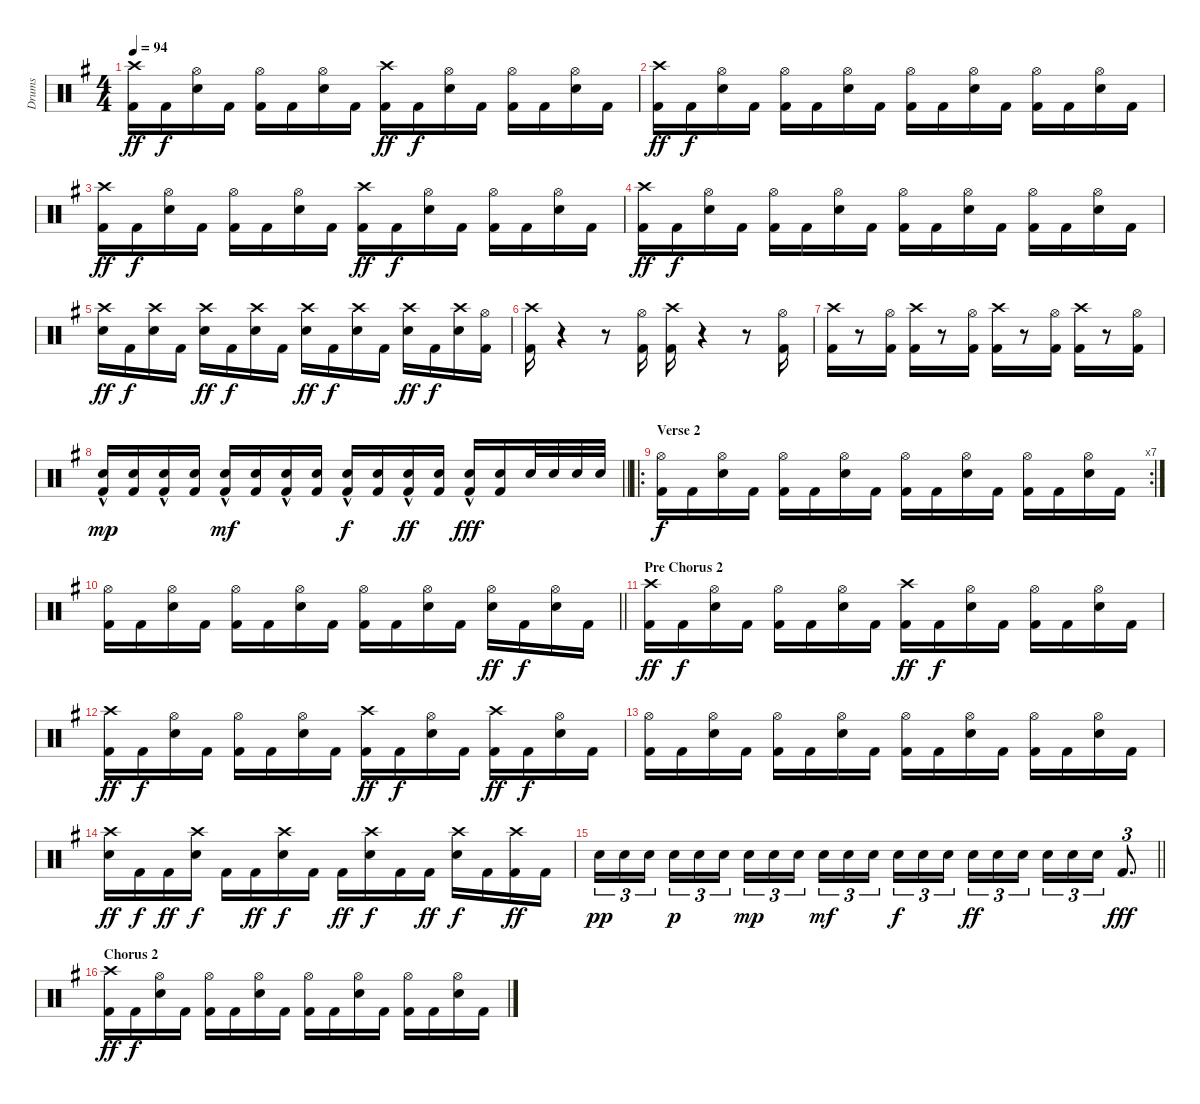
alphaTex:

\track ("Drums" "Drums") {instrument percussion}
\staff {score}
\articulation defaults
\ts (4 4)
\tempo 94
\clef neutral
\ks g
("Crash high (hit)" "Kick (hit) 2").16{dy ff} "Kick (hit) 2".16{dy f} ("Hi-Hat (open)" "Snare (hit) 2").16 "Kick (hit) 2".16 ("Hi-Hat (open)" "Kick (hit) 2").16 "Kick (hit) 2".16 ("Hi-Hat (open)" "Snare (hit) 2").16 "Kick (hit) 2".16 ("Crash high (hit)" "Kick (hit) 2").16{dy ff} "Kick (hit) 2".16{dy f} ("Hi-Hat (open)" "Snare (hit) 2").16 "Kick (hit) 2".16 ("Hi-Hat (open)" "Kick (hit) 2").16 "Kick (hit) 2".16 ("Hi-Hat (open)" "Snare (hit) 2").16 "Kick (hit) 2".16 |
("Crash high (hit)" "Kick (hit) 2").16{dy ff} "Kick (hit) 2".16{dy f} ("Hi-Hat (open)" "Snare (hit) 2").16 "Kick (hit) 2".16 ("Hi-Hat (open)" "Kick (hit) 2").16 "Kick (hit) 2".16 ("Hi-Hat (open)" "Snare (hit) 2").16 "Kick (hit) 2".16 ("Hi-Hat (open)" "Kick (hit) 2").16 "Kick (hit) 2".16 ("Hi-Hat (open)" "Snare (hit) 2").16 "Kick (hit) 2".16 ("Hi-Hat (open)" "Kick (hit) 2").16 "Kick (hit) 2".16 ("Hi-Hat (open)" "Snare (hit) 2").16 "Kick (hit) 2".16 |
("Crash high (hit)" "Kick (hit) 2").16{dy ff} "Kick (hit) 2".16{dy f} ("Hi-Hat (open)" "Snare (hit) 2").16 "Kick (hit) 2".16 ("Hi-Hat (open)" "Kick (hit) 2").16 "Kick (hit) 2".16 ("Hi-Hat (open)" "Snare (hit) 2").16 "Kick (hit) 2".16 ("Crash high (hit)" "Kick (hit) 2").16{dy ff} "Kick (hit) 2".16{dy f} ("Hi-Hat (open)" "Snare (hit) 2").16 "Kick (hit) 2".16 ("Hi-Hat (open)" "Kick (hit) 2").16 "Kick (hit) 2".16 ("Hi-Hat (open)" "Snare (hit) 2").16 "Kick (hit) 2".16 |
("Crash high (hit)" "Kick (hit) 2").16{dy ff} "Kick (hit) 2".16{dy f} ("Hi-Hat (open)" "Snare (hit) 2").16 "Kick (hit) 2".16 ("Hi-Hat (open)" "Kick (hit) 2").16 "Kick (hit) 2".16 ("Hi-Hat (open)" "Snare (hit) 2").16 "Kick (hit) 2".16 ("Hi-Hat (open)" "Kick (hit) 2").16 "Kick (hit) 2".16 ("Hi-Hat (open)" "Snare (hit) 2").16 "Kick (hit) 2".16 ("Hi-Hat (open)" "Kick (hit) 2").16 "Kick (hit) 2".16 ("Hi-Hat (open)" "Snare (hit) 2").16 "Kick (hit) 2".16 |
("Crash high (hit)" "Snare (hit) 2").16{dy ff} "Kick (hit) 2".16{dy f} ("Crash high (hit)" "Snare (hit) 2").16 "Kick (hit) 2".16 ("Crash high (hit)" "Snare (hit) 2").16{dy ff} "Kick (hit) 2".16{dy f} ("Crash high (hit)" "Snare (hit) 2").16 "Kick (hit) 2".16 ("Crash high (hit)" "Snare (hit) 2").16{dy ff} "Kick (hit) 2".16{dy f} ("Crash high (hit)" "Snare (hit) 2").16 "Kick (hit) 2".16 ("Crash high (hit)" "Snare (hit) 2").16{dy ff} "Kick (hit) 2".16{dy f} ("Crash high (hit)" "Snare (hit) 2").16 ("Hi-Hat (open)" "Kick (hit) 2").16 |
("Crash high (hit)" "Kick (hit) 2").16 r.4 r.8 ("Hi-Hat (open)" "Kick (hit) 2").16 ("Crash high (hit)" "Kick (hit) 2").16 r.4 r.8 ("Hi-Hat (open)" "Kick (hit) 2").16 |
("Crash high (hit)" "Kick (hit) 2").16 r.8 ("Hi-Hat (open)" "Kick (hit) 2").16 ("Crash high (hit)" "Kick (hit) 2").16 r.8 ("Hi-Hat (open)" "Kick (hit) 2").16 ("Crash high (hit)" "Kick (hit) 2").16 r.8 ("Hi-Hat (open)" "Kick (hit) 2").16 ("Crash high (hit)" "Kick (hit) 2").16 r.8 ("Hi-Hat (open)" "Kick (hit) 2").16 |
\barLineRight lightlight
("Snare (hit) 2"{hac} "Kick (hit) 2").16{dy mp} ("Snare (hit) 2" "Kick (hit) 2").16 ("Snare (hit) 2"{hac} "Kick (hit) 2").16 ("Snare (hit) 2" "Kick (hit) 2").16 ("Snare (hit) 2"{hac} "Kick (hit) 2").16{dy mf} ("Snare (hit) 2" "Kick (hit) 2").16 ("Snare (hit) 2"{hac} "Kick (hit) 2").16 ("Snare (hit) 2" "Kick (hit) 2").16 ("Snare (hit) 2"{hac} "Kick (hit) 2").16{dy f} ("Snare (hit) 2" "Kick (hit) 2").16 ("Snare (hit) 2"{hac} "Kick (hit) 2").16{dy ff} ("Snare (hit) 2" "Kick (hit) 2").16 ("Snare (hit) 2"{hac} "Kick (hit) 2").16{dy fff} ("Snare (hit) 2" "Kick (hit) 2").16 "Snare (hit) 2".32 "Snare (hit) 2".32 "Snare (hit) 2".32 "Snare (hit) 2".32 |
\ro
\rc 7
\section ("" "Verse 2")
("Hi-Hat (open)" "Kick (hit) 2").16{dy f} "Kick (hit) 2".16 ("Hi-Hat (open)" "Snare (hit) 2").16 "Kick (hit) 2".16 ("Hi-Hat (open)" "Kick (hit) 2").16 "Kick (hit) 2".16 ("Hi-Hat (open)" "Snare (hit) 2").16 "Kick (hit) 2".16 ("Hi-Hat (open)" "Kick (hit) 2").16 "Kick (hit) 2".16 ("Hi-Hat (open)" "Snare (hit) 2").16 "Kick (hit) 2".16 ("Hi-Hat (open)" "Kick (hit) 2").16 "Kick (hit) 2".16 ("Hi-Hat (open)" "Snare (hit) 2").16 "Kick (hit) 2".16 |
\barLineRight lightlight
("Hi-Hat (open)" "Kick (hit) 2").16 "Kick (hit) 2".16 ("Hi-Hat (open)" "Snare (hit) 2").16 "Kick (hit) 2".16 ("Hi-Hat (open)" "Kick (hit) 2").16 "Kick (hit) 2".16 ("Hi-Hat (open)" "Snare (hit) 2").16 "Kick (hit) 2".16 ("Hi-Hat (open)" "Kick (hit) 2").16 "Kick (hit) 2".16 ("Hi-Hat (open)" "Snare (hit) 2").16 "Kick (hit) 2".16 ("Hi-Hat (open)" "Snare (hit) 2").16{dy ff} "Kick (hit) 2".16{dy f} ("Hi-Hat (open)" "Snare (hit) 2").16 "Kick (hit) 2".16 |
\section ("" "Pre Chorus 2")
("Crash high (hit)" "Kick (hit) 2").16{dy ff} "Kick (hit) 2".16{dy f} ("Hi-Hat (open)" "Snare (hit) 2").16 "Kick (hit) 2".16 ("Hi-Hat (open)" "Kick (hit) 2").16 "Kick (hit) 2".16 ("Hi-Hat (open)" "Snare (hit) 2").16 "Kick (hit) 2".16 ("Crash high (hit)" "Kick (hit) 2").16{dy ff} "Kick (hit) 2".16{dy f} ("Hi-Hat (open)" "Snare (hit) 2").16 "Kick (hit) 2".16 ("Hi-Hat (open)" "Kick (hit) 2").16 "Kick (hit) 2".16 ("Hi-Hat (open)" "Snare (hit) 2").16 "Kick (hit) 2".16 |
("Crash high (hit)" "Kick (hit) 2").16{dy ff} "Kick (hit) 2".16{dy f} ("Hi-Hat (open)" "Snare (hit) 2").16 "Kick (hit) 2".16 ("Hi-Hat (open)" "Kick (hit) 2").16 "Kick (hit) 2".16 ("Hi-Hat (open)" "Snare (hit) 2").16 "Kick (hit) 2".16 ("Crash high (hit)" "Kick (hit) 2").16{dy ff} "Kick (hit) 2".16{dy f} ("Hi-Hat (open)" "Snare (hit) 2").16 "Kick (hit) 2".16 ("Crash high (hit)" "Kick (hit) 2").16{dy ff} "Kick (hit) 2".16{dy f} ("Hi-Hat (open)" "Snare (hit) 2").16 "Kick (hit) 2".16 |
("Hi-Hat (open)" "Kick (hit) 2").16 "Kick (hit) 2".16 ("Hi-Hat (open)" "Snare (hit) 2").16 "Kick (hit) 2".16 ("Hi-Hat (open)" "Kick (hit) 2").16 "Kick (hit) 2".16 ("Hi-Hat (open)" "Snare (hit) 2").16 "Kick (hit) 2".16 ("Hi-Hat (open)" "Kick (hit) 2").16 "Kick (hit) 2".16 ("Hi-Hat (open)" "Snare (hit) 2").16 "Kick (hit) 2".16 ("Hi-Hat (open)" "Kick (hit) 2").16 "Kick (hit) 2".16 ("Hi-Hat (open)" "Snare (hit) 2").16 "Kick (hit) 2".16 |
("Crash high (hit)" "Snare (hit) 2").16{dy ff} "Kick (hit) 2".16{dy f} "Kick (hit) 2".16{dy ff} ("Crash high (hit)" "Snare (hit) 2").16{dy f} "Kick (hit) 2".16 "Kick (hit) 2".16{dy ff} ("Crash high (hit)" "Snare (hit) 2").16{dy f} "Kick (hit) 2".16 "Kick (hit) 2".16{dy ff} ("Crash high (hit)" "Snare (hit) 2").16{dy f} "Kick (hit) 2".16 "Kick (hit) 2".16{dy ff} ("Crash high (hit)" "Snare (hit) 2").16{dy f} "Kick (hit) 2".16 ("Crash high (hit)" "Kick (hit) 2").16{dy ff} "Kick (hit) 2".16 |
\barLineRight lightlight "Snare (hit) 2".16{tu (3 2) dy pp} "Snare (hit) 2".16{tu (3 2)} "Snare (hit) 2".16{tu (3 2) beam splitsecondary} "Snare (hit) 2".16{tu (3 2) dy p} "Snare (hit) 2".16{tu (3 2)} "Snare (hit) 2".16{tu (3 2)} "Snare (hit) 2".16{tu (3 2) dy mp} "Snare (hit) 2".16{tu (3 2)} "Snare (hit) 2".16{tu (3 2) beam splitsecondary} "Snare (hit) 2".16{tu (3 2) dy mf} "Snare (hit) 2".16{tu (3 2)} "Snare (hit) 2".16{tu (3 2)} "Snare (hit) 2".16{tu (3 2) dy f} "Snare (hit) 2".16{tu (3 2)} "Snare (hit) 2".16{tu (3 2) beam splitsecondary} "Snare (hit) 2".16{tu (3 2) dy ff} "Snare (hit) 2".16{tu (3 2)} "Snare (hit) 2".16{tu (3 2)} "Snare (hit) 2".16{tu (3 2)} "Snare (hit) 2".16{tu (3 2)} "Snare (hit) 2".16{tu (3 2)} "Kick (hit) 2".8{d tu (3 2) dy fff}
|
\section ("" "Chorus 2")
("Crash high (hit)" "Kick (hit) 2").16{dy ff} "Kick (hit) 2".16{dy f} ("Hi-Hat (open)" "Snare (hit) 2").16 "Kick (hit) 2".16 ("Hi-Hat (open)" "Kick (hit) 2").16 "Kick (hit) 2".16 ("Hi-Hat (open)" "Snare (hit) 2").16 "Kick (hit) 2".16 ("Hi-Hat (open)" "Kick (hit) 2").16 "Kick (hit) 2".16 ("Hi-Hat (open)" "Snare (hit) 2").16 "Kick (hit) 2".16 ("Hi-Hat (open)" "Kick (hit) 2").16 "Kick (hit) 2".16 ("Hi-Hat (open)" "Snare (hit) 2").16 "Kick (hit) 2".16
